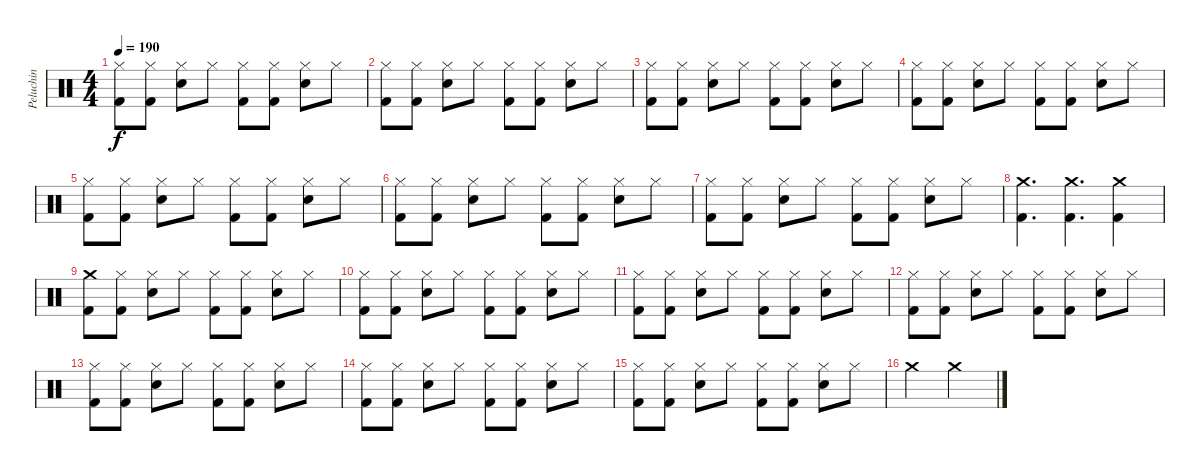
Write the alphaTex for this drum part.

\track ("Peluchin" "Peluchin") {instrument percussion}
\staff {score}
\articulation defaults
\ts (4 4)
\tempo 190
\clef neutral
\ks c
("Kick (hit) 2" "Hi-Hat (closed)").8{dy f} ("Kick (hit) 2" "Hi-Hat (closed)").8 ("Electric Snare (hit)" "Hi-Hat (closed)").8 "Hi-Hat (closed)".8 ("Kick (hit) 2" "Hi-Hat (closed)").8 ("Kick (hit) 2" "Hi-Hat (closed)").8 ("Electric Snare (hit)" "Hi-Hat (closed)").8 "Hi-Hat (closed)".8 |
("Kick (hit) 2" "Hi-Hat (closed)").8 ("Kick (hit) 2" "Hi-Hat (closed)").8 ("Electric Snare (hit)" "Hi-Hat (closed)").8 "Hi-Hat (closed)".8 ("Kick (hit) 2" "Hi-Hat (closed)").8 ("Kick (hit) 2" "Hi-Hat (closed)").8 ("Electric Snare (hit)" "Hi-Hat (closed)").8 "Hi-Hat (closed)".8 |
("Kick (hit) 2" "Hi-Hat (closed)").8 ("Kick (hit) 2" "Hi-Hat (closed)").8 ("Electric Snare (hit)" "Hi-Hat (closed)").8 "Hi-Hat (closed)".8 ("Kick (hit) 2" "Hi-Hat (closed)").8 ("Kick (hit) 2" "Hi-Hat (closed)").8 ("Electric Snare (hit)" "Hi-Hat (closed)").8 "Hi-Hat (closed)".8 |
("Kick (hit) 2" "Hi-Hat (closed)").8 ("Kick (hit) 2" "Hi-Hat (closed)").8 ("Electric Snare (hit)" "Hi-Hat (closed)").8 "Hi-Hat (closed)".8 ("Kick (hit) 2" "Hi-Hat (closed)").8 ("Kick (hit) 2" "Hi-Hat (closed)").8 ("Electric Snare (hit)" "Hi-Hat (closed)").8 "Hi-Hat (closed)".8 |
("Kick (hit) 2" "Hi-Hat (closed)").8 ("Kick (hit) 2" "Hi-Hat (closed)").8 ("Electric Snare (hit)" "Hi-Hat (closed)").8 "Hi-Hat (closed)".8 ("Kick (hit) 2" "Hi-Hat (closed)").8 ("Kick (hit) 2" "Hi-Hat (closed)").8 ("Electric Snare (hit)" "Hi-Hat (closed)").8 "Hi-Hat (closed)".8 |
("Kick (hit) 2" "Hi-Hat (closed)").8 ("Kick (hit) 2" "Hi-Hat (closed)").8 ("Electric Snare (hit)" "Hi-Hat (closed)").8 "Hi-Hat (closed)".8 ("Kick (hit) 2" "Hi-Hat (closed)").8 ("Kick (hit) 2" "Hi-Hat (closed)").8 ("Electric Snare (hit)" "Hi-Hat (closed)").8 "Hi-Hat (closed)".8 |
("Kick (hit) 2" "Hi-Hat (closed)").8 ("Kick (hit) 2" "Hi-Hat (closed)").8 ("Electric Snare (hit)" "Hi-Hat (closed)").8 "Hi-Hat (closed)".8 ("Kick (hit) 2" "Hi-Hat (closed)").8 ("Kick (hit) 2" "Hi-Hat (closed)").8 ("Electric Snare (hit)" "Hi-Hat (closed)").8 "Hi-Hat (closed)".8 |
("Crash medium (hit)" "Kick (hit) 2").4{d} ("Crash medium (hit)" "Kick (hit) 2").4{d} ("Crash medium (hit)" "Kick (hit) 2").4 |
("Kick (hit) 2" "Crash medium (hit)").8 ("Kick (hit) 2" "Hi-Hat (closed)").8 ("Electric Snare (hit)" "Hi-Hat (closed)").8 "Hi-Hat (closed)".8 ("Kick (hit) 2" "Hi-Hat (closed)").8 ("Kick (hit) 2" "Hi-Hat (closed)").8 ("Electric Snare (hit)" "Hi-Hat (closed)").8 "Hi-Hat (closed)".8 |
("Kick (hit) 2" "Hi-Hat (closed)").8 ("Kick (hit) 2" "Hi-Hat (closed)").8 ("Electric Snare (hit)" "Hi-Hat (closed)").8 "Hi-Hat (closed)".8 ("Kick (hit) 2" "Hi-Hat (closed)").8 ("Kick (hit) 2" "Hi-Hat (closed)").8 ("Electric Snare (hit)" "Hi-Hat (closed)").8 "Hi-Hat (closed)".8 |
("Kick (hit) 2" "Hi-Hat (closed)").8 ("Kick (hit) 2" "Hi-Hat (closed)").8 ("Electric Snare (hit)" "Hi-Hat (closed)").8 "Hi-Hat (closed)".8 ("Kick (hit) 2" "Hi-Hat (closed)").8 ("Kick (hit) 2" "Hi-Hat (closed)").8 ("Electric Snare (hit)" "Hi-Hat (closed)").8 "Hi-Hat (closed)".8 |
("Kick (hit) 2" "Hi-Hat (closed)").8 ("Kick (hit) 2" "Hi-Hat (closed)").8 ("Electric Snare (hit)" "Hi-Hat (closed)").8 "Hi-Hat (closed)".8 ("Kick (hit) 2" "Hi-Hat (closed)").8 ("Kick (hit) 2" "Hi-Hat (closed)").8 ("Electric Snare (hit)" "Hi-Hat (closed)").8 "Hi-Hat (closed)".8 |
("Kick (hit) 2" "Hi-Hat (closed)").8 ("Kick (hit) 2" "Hi-Hat (closed)").8 ("Electric Snare (hit)" "Hi-Hat (closed)").8 "Hi-Hat (closed)".8 ("Kick (hit) 2" "Hi-Hat (closed)").8 ("Kick (hit) 2" "Hi-Hat (closed)").8 ("Electric Snare (hit)" "Hi-Hat (closed)").8 "Hi-Hat (closed)".8 |
("Kick (hit) 2" "Hi-Hat (closed)").8 ("Kick (hit) 2" "Hi-Hat (closed)").8 ("Electric Snare (hit)" "Hi-Hat (closed)").8 "Hi-Hat (closed)".8 ("Kick (hit) 2" "Hi-Hat (closed)").8 ("Kick (hit) 2" "Hi-Hat (closed)").8 ("Electric Snare (hit)" "Hi-Hat (closed)").8 "Hi-Hat (closed)".8 |
("Kick (hit) 2" "Hi-Hat (closed)").8 ("Kick (hit) 2" "Hi-Hat (closed)").8 ("Electric Snare (hit)" "Hi-Hat (closed)").8 "Hi-Hat (closed)".8 ("Kick (hit) 2" "Hi-Hat (closed)").8 ("Kick (hit) 2" "Hi-Hat (closed)").8 ("Electric Snare (hit)" "Hi-Hat (closed)").8 "Hi-Hat (closed)".8 |
"Crash medium (hit)".2 "Crash medium (hit)".2
